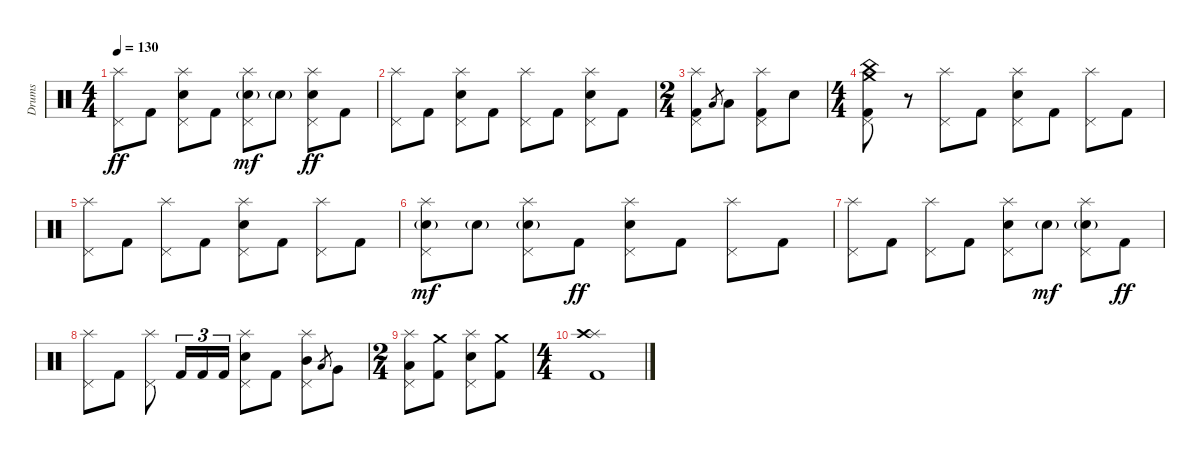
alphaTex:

\track ("Drums" "Drums") {instrument percussion}
\staff {score}
\articulation defaults
\ts (4 4)
\tempo 130
\clef neutral
\ks c
("Splash (hit)" "Pedal Hi-Hat (hit)").8{dy ff} "Kick (hit) 2".8 ("Splash (hit)" "Pedal Hi-Hat (hit)" "Electric Snare (hit)").8 "Kick (hit) 2".8 ("Splash (hit)" "Pedal Hi-Hat (hit)" "Electric Snare (hit)"{g}).8{dy mf} "Electric Snare (hit)"{g}.8 ("Splash (hit)" "Pedal Hi-Hat (hit)" "Electric Snare (hit)").8{dy ff} "Kick (hit) 2".8 |
("Splash (hit)" "Pedal Hi-Hat (hit)").8 "Kick (hit) 2".8 ("Splash (hit)" "Pedal Hi-Hat (hit)" "Electric Snare (hit)").8 "Kick (hit) 2".8 ("Splash (hit)" "Pedal Hi-Hat (hit)").8 "Kick (hit) 2".8 ("Splash (hit)" "Pedal Hi-Hat (hit)" "Electric Snare (hit)").8 "Kick (hit) 2".8 |
\ts (2 4)
("Splash (hit)" "Pedal Hi-Hat (hit)" "Kick (hit) 2").8 "Low Tom (hit)".8{gr} "Low Floor Tom (hit)".8 ("Splash (hit)" "Pedal Hi-Hat (hit)" "Kick (hit) 2").8 "Electric Snare (hit)".8 |
\ts (4 4)
("Crash medium (hit)" "China (hit)" "Pedal Hi-Hat (hit)" "Kick (hit) 2").8 r.8 ("Splash (hit)" "Pedal Hi-Hat (hit)").8 "Kick (hit) 2".8 ("Splash (hit)" "Pedal Hi-Hat (hit)" "Electric Snare (hit)").8 "Kick (hit) 2".8 ("Splash (hit)" "Pedal Hi-Hat (hit)").8 "Kick (hit) 2".8 |
("Splash (hit)" "Pedal Hi-Hat (hit)").8 "Kick (hit) 2".8 ("Splash (hit)" "Pedal Hi-Hat (hit)").8 "Kick (hit) 2".8 ("Splash (hit)" "Pedal Hi-Hat (hit)" "Electric Snare (hit)").8 "Kick (hit) 2".8 ("Splash (hit)" "Pedal Hi-Hat (hit)").8 "Kick (hit) 2".8 |
("Splash (hit)" "Pedal Hi-Hat (hit)" "Electric Snare (hit)"{g}).8{dy mf} "Electric Snare (hit)"{g}.8 ("Splash (hit)" "Pedal Hi-Hat (hit)" "Electric Snare (hit)"{g}).8 "Kick (hit) 2".8{dy ff} ("Splash (hit)" "Pedal Hi-Hat (hit)" "Electric Snare (hit)").8 "Kick (hit) 2".8 ("Splash (hit)" "Pedal Hi-Hat (hit)").8 "Kick (hit) 2".8 |
("Splash (hit)" "Pedal Hi-Hat (hit)").8 "Kick (hit) 2".8 ("Splash (hit)" "Pedal Hi-Hat (hit)").8 "Kick (hit) 2".8 ("Splash (hit)" "Pedal Hi-Hat (hit)" "Electric Snare (hit)").8 "Electric Snare (hit)"{g}.8{dy mf} ("Splash (hit)" "Pedal Hi-Hat (hit)" "Electric Snare (hit)"{g}).8 "Kick (hit) 2".8{dy ff} |
("Splash (hit)" "Pedal Hi-Hat (hit)").8 "Kick (hit) 2".8 ("Splash (hit)" "Pedal Hi-Hat (hit)").8 "Kick (hit) 2".16{tu (3 2)} "Kick (hit) 2".16{tu (3 2)} "Kick (hit) 2".16{tu (3 2)} ("Splash (hit)" "Pedal Hi-Hat (hit)" "Electric Snare (hit)").8 "Kick (hit) 2".8 ("Splash (hit)" "Mid Tom (hit)" "Pedal Hi-Hat (hit)").8 "Low Tom (hit)".8{gr} "Very Low Tom (hit)".8 |
\ts (2 4)
("Splash (hit)" "Pedal Hi-Hat (hit)" "Low Floor Tom (hit)").8 ("Crash medium (hit)" "Kick (hit) 2").8 ("Splash (hit)" "Pedal Hi-Hat (hit)" "Electric Snare (hit)").8 ("Crash medium (hit)" "Kick (hit) 2").8 |
\ts (4 4)
("Splash (hit)" "Crash high (hit)" "Kick (hit) 2").1
